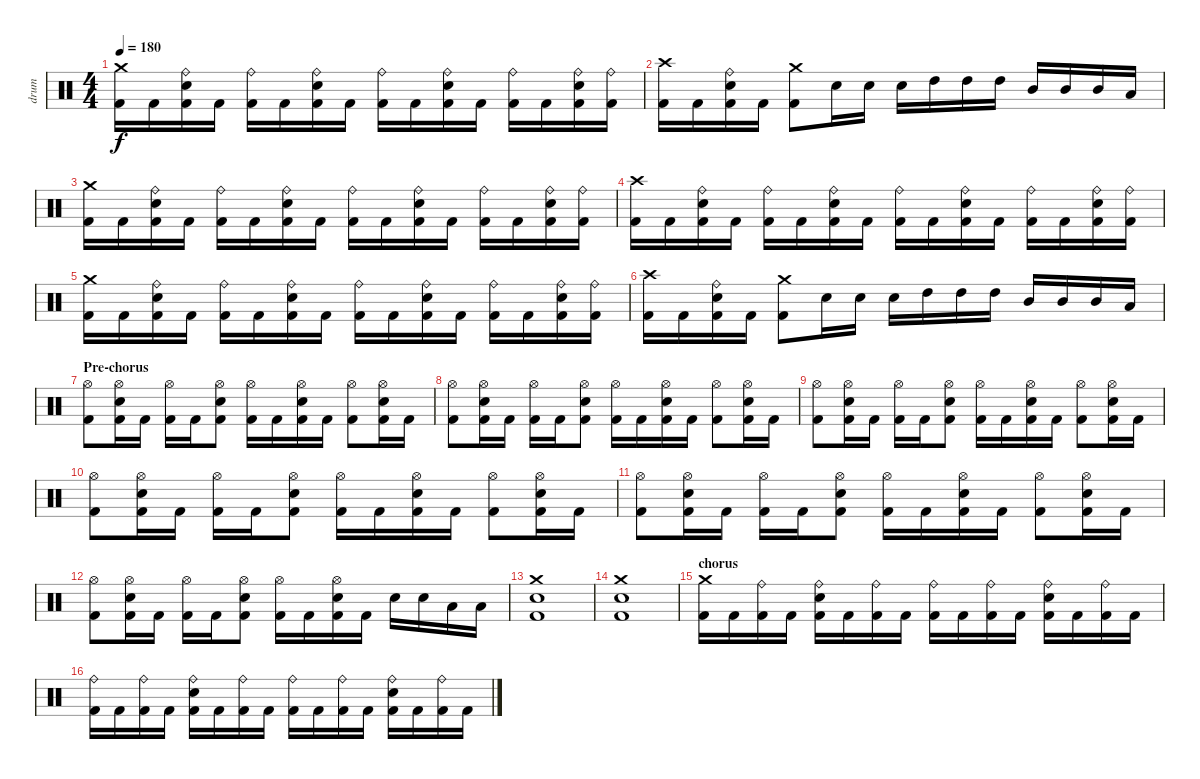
\track ("drum" "drum") {instrument percussion}
\staff {score}
\articulation defaults
\ts (4 4)
\tempo 180
\clef neutral
\ks c
("Crash medium (hit)" "Kick (hit) 2").16{dy f} "Kick (hit) 2".16 ("Ride (bell)" "Electric Snare (hit)" "Kick (hit) 2").16 "Kick (hit) 2".16 ("Ride (bell)" "Kick (hit) 2").16 "Kick (hit) 2".16 ("Ride (bell)" "Electric Snare (hit)" "Kick (hit) 2").16 "Kick (hit) 2".16 ("Ride (bell)" "Kick (hit) 2").16 "Kick (hit) 2".16 ("Ride (bell)" "Electric Snare (hit)" "Kick (hit) 2").16 "Kick (hit) 2".16 ("Ride (bell)" "Kick (hit) 2").16 "Kick (hit) 2".16 ("Ride (bell)" "Electric Snare (hit)" "Kick (hit) 2").16 ("Ride (bell)" "Kick (hit) 2").16 |
("Crash high (hit)" "Kick (hit) 2").16 "Kick (hit) 2".16 ("Ride (bell)" "Electric Snare (hit)" "Kick (hit) 2").16 "Kick (hit) 2".16 ("Crash medium (hit)" "Kick (hit) 2").8 "Electric Snare (hit)".16 "Electric Snare (hit)".16 "Electric Snare (hit)".16 "High Tom (hit)".16 "High Tom (hit)".16 "High Tom (hit)".16 "Mid Tom (hit)".16 "Mid Tom (hit)".16 "Mid Tom (hit)".16 "Low Tom (hit)".16 |
("Crash medium (hit)" "Kick (hit) 2").16 "Kick (hit) 2".16 ("Ride (bell)" "Electric Snare (hit)" "Kick (hit) 2").16 "Kick (hit) 2".16 ("Ride (bell)" "Kick (hit) 2").16 "Kick (hit) 2".16 ("Ride (bell)" "Electric Snare (hit)" "Kick (hit) 2").16 "Kick (hit) 2".16 ("Ride (bell)" "Kick (hit) 2").16 "Kick (hit) 2".16 ("Ride (bell)" "Electric Snare (hit)" "Kick (hit) 2").16 "Kick (hit) 2".16 ("Ride (bell)" "Kick (hit) 2").16 "Kick (hit) 2".16 ("Ride (bell)" "Electric Snare (hit)" "Kick (hit) 2").16 ("Ride (bell)" "Kick (hit) 2").16 |
("Crash high (hit)" "Kick (hit) 2").16 "Kick (hit) 2".16 ("Ride (bell)" "Electric Snare (hit)" "Kick (hit) 2").16 "Kick (hit) 2".16 ("Ride (bell)" "Kick (hit) 2").16 "Kick (hit) 2".16 ("Ride (bell)" "Electric Snare (hit)" "Kick (hit) 2").16 "Kick (hit) 2".16 ("Ride (bell)" "Kick (hit) 2").16 "Kick (hit) 2".16 ("Ride (bell)" "Electric Snare (hit)" "Kick (hit) 2").16 "Kick (hit) 2".16 ("Ride (bell)" "Kick (hit) 2").16 "Kick (hit) 2".16 ("Ride (bell)" "Electric Snare (hit)" "Kick (hit) 2").16 ("Ride (bell)" "Kick (hit) 2").16 |
("Crash medium (hit)" "Kick (hit) 2").16 "Kick (hit) 2".16 ("Ride (bell)" "Electric Snare (hit)" "Kick (hit) 2").16 "Kick (hit) 2".16 ("Ride (bell)" "Kick (hit) 2").16 "Kick (hit) 2".16 ("Ride (bell)" "Electric Snare (hit)" "Kick (hit) 2").16 "Kick (hit) 2".16 ("Ride (bell)" "Kick (hit) 2").16 "Kick (hit) 2".16 ("Ride (bell)" "Electric Snare (hit)" "Kick (hit) 2").16 "Kick (hit) 2".16 ("Ride (bell)" "Kick (hit) 2").16 "Kick (hit) 2".16 ("Ride (bell)" "Electric Snare (hit)" "Kick (hit) 2").16 ("Ride (bell)" "Kick (hit) 2").16 |
("Crash high (hit)" "Kick (hit) 2").16 "Kick (hit) 2".16 ("Ride (bell)" "Electric Snare (hit)" "Kick (hit) 2").16 "Kick (hit) 2".16 ("Crash medium (hit)" "Kick (hit) 2").8 "Electric Snare (hit)".16 "Electric Snare (hit)".16 "Electric Snare (hit)".16 "High Tom (hit)".16 "High Tom (hit)".16 "High Tom (hit)".16 "Mid Tom (hit)".16 "Mid Tom (hit)".16 "Mid Tom (hit)".16 "Low Tom (hit)".16 |
\section ("" "Pre-chorus")
("Hi-Hat (open)" "Kick (hit) 2").8 ("Hi-Hat (open)" "Electric Snare (hit)" "Kick (hit) 2").16 "Kick (hit) 2".16 ("Hi-Hat (open)" "Kick (hit) 2").16 "Kick (hit) 2".16 ("Hi-Hat (open)" "Electric Snare (hit)" "Kick (hit) 2").8 ("Hi-Hat (open)" "Kick (hit) 2").16 "Kick (hit) 2".16 ("Hi-Hat (open)" "Electric Snare (hit)" "Kick (hit) 2").16 "Kick (hit) 2".16 ("Hi-Hat (open)" "Kick (hit) 2").8 ("Hi-Hat (open)" "Electric Snare (hit)" "Kick (hit) 2").16 "Kick (hit) 2".16 |
("Hi-Hat (open)" "Kick (hit) 2").8 ("Hi-Hat (open)" "Electric Snare (hit)" "Kick (hit) 2").16 "Kick (hit) 2".16 ("Hi-Hat (open)" "Kick (hit) 2").16 "Kick (hit) 2".16 ("Hi-Hat (open)" "Electric Snare (hit)" "Kick (hit) 2").8 ("Hi-Hat (open)" "Kick (hit) 2").16 "Kick (hit) 2".16 ("Hi-Hat (open)" "Electric Snare (hit)" "Kick (hit) 2").16 "Kick (hit) 2".16 ("Hi-Hat (open)" "Kick (hit) 2").8 ("Hi-Hat (open)" "Electric Snare (hit)" "Kick (hit) 2").16 "Kick (hit) 2".16 |
("Hi-Hat (open)" "Kick (hit) 2").8 ("Hi-Hat (open)" "Electric Snare (hit)" "Kick (hit) 2").16 "Kick (hit) 2".16 ("Hi-Hat (open)" "Kick (hit) 2").16 "Kick (hit) 2".16 ("Hi-Hat (open)" "Electric Snare (hit)" "Kick (hit) 2").8 ("Hi-Hat (open)" "Kick (hit) 2").16 "Kick (hit) 2".16 ("Hi-Hat (open)" "Electric Snare (hit)" "Kick (hit) 2").16 "Kick (hit) 2".16 ("Hi-Hat (open)" "Kick (hit) 2").8 ("Hi-Hat (open)" "Electric Snare (hit)" "Kick (hit) 2").16 "Kick (hit) 2".16 |
("Hi-Hat (open)" "Kick (hit) 2").8 ("Hi-Hat (open)" "Electric Snare (hit)" "Kick (hit) 2").16 "Kick (hit) 2".16 ("Hi-Hat (open)" "Kick (hit) 2").16 "Kick (hit) 2".16 ("Hi-Hat (open)" "Electric Snare (hit)" "Kick (hit) 2").8 ("Hi-Hat (open)" "Kick (hit) 2").16 "Kick (hit) 2".16 ("Hi-Hat (open)" "Electric Snare (hit)" "Kick (hit) 2").16 "Kick (hit) 2".16 ("Hi-Hat (open)" "Kick (hit) 2").8 ("Hi-Hat (open)" "Electric Snare (hit)" "Kick (hit) 2").16 "Kick (hit) 2".16 |
("Hi-Hat (open)" "Kick (hit) 2").8 ("Hi-Hat (open)" "Electric Snare (hit)" "Kick (hit) 2").16 "Kick (hit) 2".16 ("Hi-Hat (open)" "Kick (hit) 2").16 "Kick (hit) 2".16 ("Hi-Hat (open)" "Electric Snare (hit)" "Kick (hit) 2").8 ("Hi-Hat (open)" "Kick (hit) 2").16 "Kick (hit) 2".16 ("Hi-Hat (open)" "Electric Snare (hit)" "Kick (hit) 2").16 "Kick (hit) 2".16 ("Hi-Hat (open)" "Kick (hit) 2").8 ("Hi-Hat (open)" "Electric Snare (hit)" "Kick (hit) 2").16 "Kick (hit) 2".16 |
("Hi-Hat (open)" "Kick (hit) 2").8 ("Hi-Hat (open)" "Electric Snare (hit)" "Kick (hit) 2").16 "Kick (hit) 2".16 ("Hi-Hat (open)" "Kick (hit) 2").16 "Kick (hit) 2".16 ("Hi-Hat (open)" "Electric Snare (hit)" "Kick (hit) 2").8 ("Hi-Hat (open)" "Kick (hit) 2").16 "Kick (hit) 2".16 ("Hi-Hat (open)" "Electric Snare (hit)" "Kick (hit) 2").16 "Kick (hit) 2".16 "Electric Snare (hit)".16 "Electric Snare (hit)".16 "Low Tom (hit)".16 "Low Tom (hit)".16 |
("Crash medium (hit)" "Electric Snare (hit)" "Kick (hit) 2").1 |
("Crash medium (hit)" "Electric Snare (hit)" "Kick (hit) 2").1 |
\section ("" "chorus")
("Crash medium (hit)" "Kick (hit) 2").16 "Kick (hit) 2".16 ("Ride (bell)" "Kick (hit) 2").16 "Kick (hit) 2".16 ("Ride (bell)" "Electric Snare (hit)" "Kick (hit) 2").16 "Kick (hit) 2".16 ("Ride (bell)" "Kick (hit) 2").16 "Kick (hit) 2".16 ("Ride (bell)" "Kick (hit) 2").16 "Kick (hit) 2".16 ("Ride (bell)" "Kick (hit) 2").16 "Kick (hit) 2".16 ("Ride (bell)" "Electric Snare (hit)" "Kick (hit) 2").16 "Kick (hit) 2".16 ("Ride (bell)" "Kick (hit) 2").16 "Kick (hit) 2".16 |
("Ride (bell)" "Kick (hit) 2").16 "Kick (hit) 2".16 ("Ride (bell)" "Kick (hit) 2").16 "Kick (hit) 2".16 ("Ride (bell)" "Electric Snare (hit)" "Kick (hit) 2").16 "Kick (hit) 2".16 ("Ride (bell)" "Kick (hit) 2").16 "Kick (hit) 2".16 ("Ride (bell)" "Kick (hit) 2").16 "Kick (hit) 2".16 ("Ride (bell)" "Kick (hit) 2").16 "Kick (hit) 2".16 ("Ride (bell)" "Electric Snare (hit)" "Kick (hit) 2").16 "Kick (hit) 2".16 ("Ride (bell)" "Kick (hit) 2").16 "Kick (hit) 2".16
